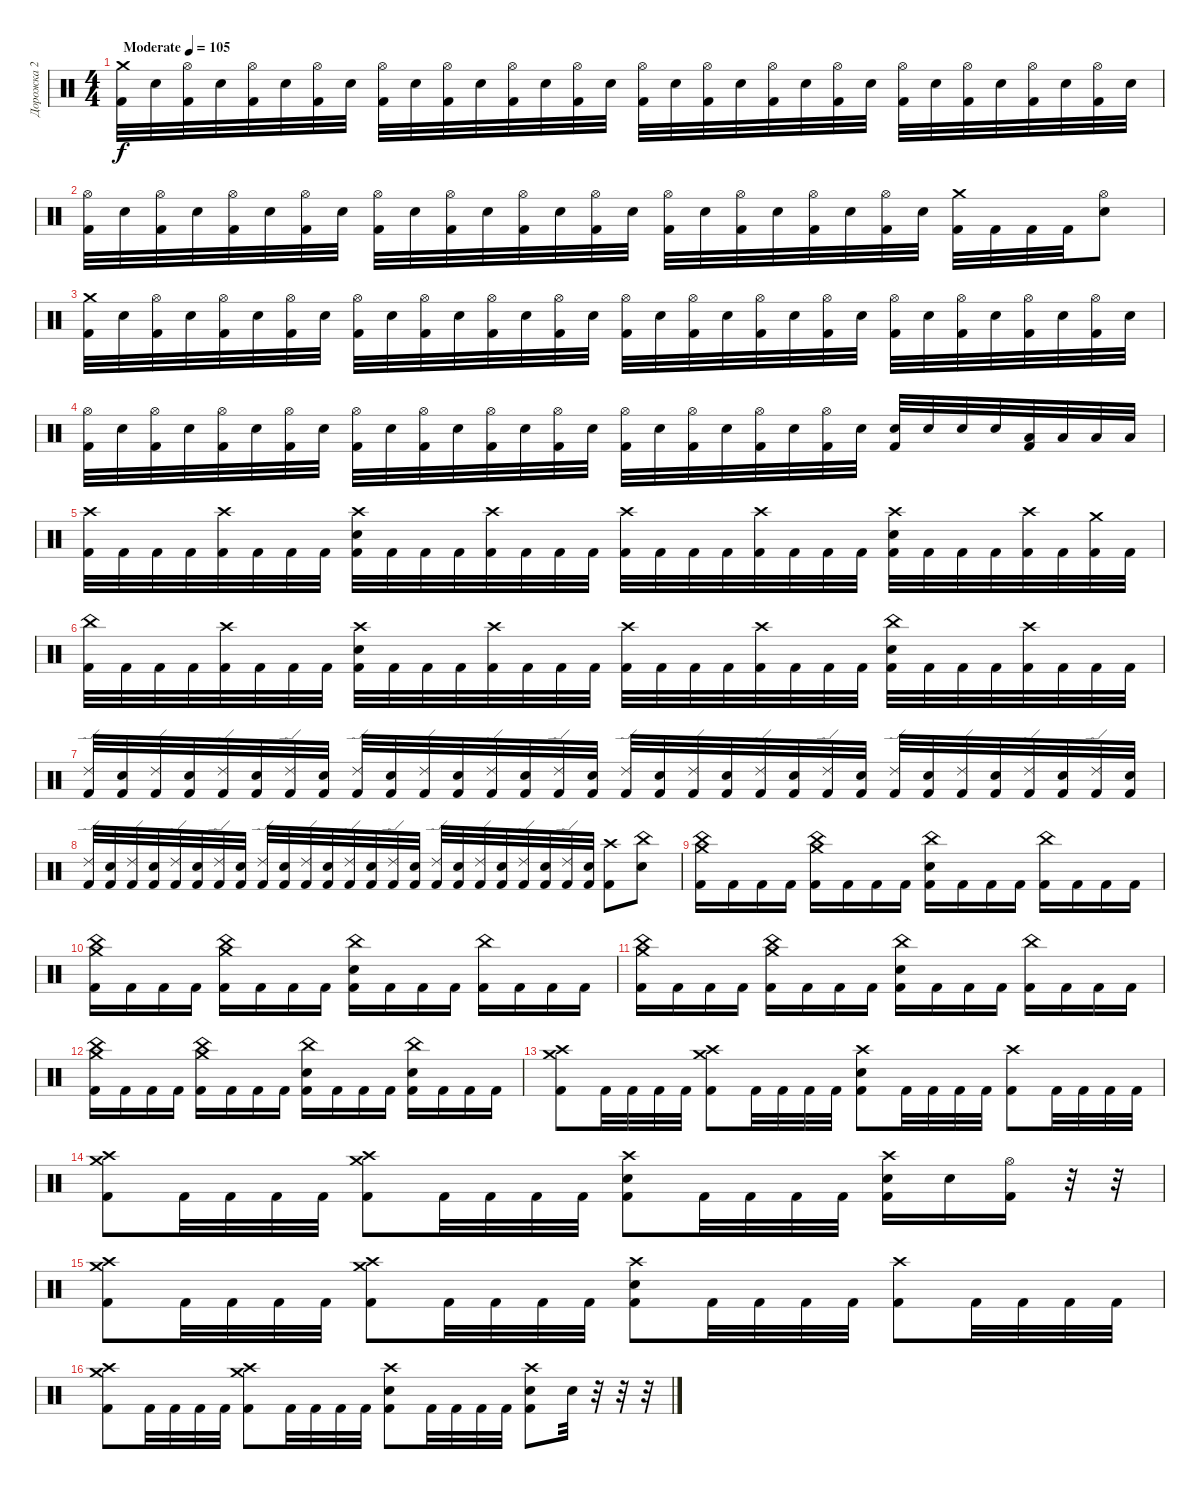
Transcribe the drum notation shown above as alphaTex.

\track ("Дорожка 2" "Дорожка 2") {instrument percussion}
\staff {score}
\articulation defaults
\ts (4 4)
\tempo (105 "Moderate")
\clef neutral
\ks c
("Crash medium (hit)" "Kick (hit) 2").32{dy f} "Electric Snare (hit)".32 ("Hi-Hat (open)" "Kick (hit) 2").32 "Electric Snare (hit)".32 ("Hi-Hat (open)" "Kick (hit) 2").32 "Electric Snare (hit)".32 ("Hi-Hat (open)" "Kick (hit) 2").32 "Electric Snare (hit)".32 ("Hi-Hat (open)" "Kick (hit) 2").32 "Electric Snare (hit)".32 ("Hi-Hat (open)" "Kick (hit) 2").32 "Electric Snare (hit)".32 ("Hi-Hat (open)" "Kick (hit) 2").32 "Electric Snare (hit)".32 ("Hi-Hat (open)" "Kick (hit) 2").32 "Electric Snare (hit)".32 ("Hi-Hat (open)" "Kick (hit) 2").32 "Electric Snare (hit)".32 ("Hi-Hat (open)" "Kick (hit) 2").32 "Electric Snare (hit)".32 ("Hi-Hat (open)" "Kick (hit) 2").32 "Electric Snare (hit)".32 ("Hi-Hat (open)" "Kick (hit) 2").32 "Electric Snare (hit)".32 ("Hi-Hat (open)" "Kick (hit) 2").32 "Electric Snare (hit)".32 ("Hi-Hat (open)" "Kick (hit) 2").32 "Electric Snare (hit)".32 ("Hi-Hat (open)" "Kick (hit) 2").32 "Electric Snare (hit)".32 ("Hi-Hat (open)" "Kick (hit) 2").32 "Electric Snare (hit)".32 |
("Hi-Hat (open)" "Kick (hit) 2").32 "Electric Snare (hit)".32 ("Hi-Hat (open)" "Kick (hit) 2").32 "Electric Snare (hit)".32 ("Hi-Hat (open)" "Kick (hit) 2").32 "Electric Snare (hit)".32 ("Hi-Hat (open)" "Kick (hit) 2").32 "Electric Snare (hit)".32 ("Hi-Hat (open)" "Kick (hit) 2").32 "Electric Snare (hit)".32 ("Hi-Hat (open)" "Kick (hit) 2").32 "Electric Snare (hit)".32 ("Hi-Hat (open)" "Kick (hit) 2").32 "Electric Snare (hit)".32 ("Hi-Hat (open)" "Kick (hit) 2").32 "Electric Snare (hit)".32 ("Hi-Hat (open)" "Kick (hit) 2").32 "Electric Snare (hit)".32 ("Hi-Hat (open)" "Kick (hit) 2").32 "Electric Snare (hit)".32 ("Hi-Hat (open)" "Kick (hit) 2").32 "Electric Snare (hit)".32 ("Hi-Hat (open)" "Kick (hit) 2").32 "Electric Snare (hit)".32 ("Crash medium (hit)" "Kick (hit) 2").32 "Kick (hit) 2".32 "Kick (hit) 2".32 "Kick (hit) 2".32 ("Hi-Hat (open)" "Electric Snare (hit)").8 |
("Crash medium (hit)" "Kick (hit) 2").32 "Electric Snare (hit)".32 ("Hi-Hat (open)" "Kick (hit) 2").32 "Electric Snare (hit)".32 ("Hi-Hat (open)" "Kick (hit) 2").32 "Electric Snare (hit)".32 ("Hi-Hat (open)" "Kick (hit) 2").32 "Electric Snare (hit)".32 ("Hi-Hat (open)" "Kick (hit) 2").32 "Electric Snare (hit)".32 ("Hi-Hat (open)" "Kick (hit) 2").32 "Electric Snare (hit)".32 ("Hi-Hat (open)" "Kick (hit) 2").32 "Electric Snare (hit)".32 ("Hi-Hat (open)" "Kick (hit) 2").32 "Electric Snare (hit)".32 ("Hi-Hat (open)" "Kick (hit) 2").32 "Electric Snare (hit)".32 ("Hi-Hat (open)" "Kick (hit) 2").32 "Electric Snare (hit)".32 ("Hi-Hat (open)" "Kick (hit) 2").32 "Electric Snare (hit)".32 ("Hi-Hat (open)" "Kick (hit) 2").32 "Electric Snare (hit)".32 ("Hi-Hat (open)" "Kick (hit) 2").32 "Electric Snare (hit)".32 ("Hi-Hat (open)" "Kick (hit) 2").32 "Electric Snare (hit)".32 ("Hi-Hat (open)" "Kick (hit) 2").32 "Electric Snare (hit)".32 ("Hi-Hat (open)" "Kick (hit) 2").32 "Electric Snare (hit)".32 |
("Hi-Hat (open)" "Kick (hit) 2").32 "Electric Snare (hit)".32 ("Hi-Hat (open)" "Kick (hit) 2").32 "Electric Snare (hit)".32 ("Hi-Hat (open)" "Kick (hit) 2").32 "Electric Snare (hit)".32 ("Hi-Hat (open)" "Kick (hit) 2").32 "Electric Snare (hit)".32 ("Hi-Hat (open)" "Kick (hit) 2").32 "Electric Snare (hit)".32 ("Hi-Hat (open)" "Kick (hit) 2").32 "Electric Snare (hit)".32 ("Hi-Hat (open)" "Kick (hit) 2").32 "Electric Snare (hit)".32 ("Hi-Hat (open)" "Kick (hit) 2").32 "Electric Snare (hit)".32 ("Hi-Hat (open)" "Kick (hit) 2").32 "Electric Snare (hit)".32 ("Hi-Hat (open)" "Kick (hit) 2").32 "Electric Snare (hit)".32 ("Hi-Hat (open)" "Kick (hit) 2").32 "Electric Snare (hit)".32 ("Hi-Hat (open)" "Kick (hit) 2").32 "Electric Snare (hit)".32 ("Electric Snare (hit)" "Kick (hit) 2").32 "Electric Snare (hit)".32 "Electric Snare (hit)".32 "Electric Snare (hit)".32 ("Low Tom (hit)" "Kick (hit) 2").32 "Low Tom (hit)".32 "Low Tom (hit)".32 "Low Tom (hit)".32 |
("Crash high (hit)" "Kick (hit) 2").32 "Kick (hit) 2".32 "Kick (hit) 2".32 "Kick (hit) 2".32 ("Crash high (hit)" "Kick (hit) 2").32 "Kick (hit) 2".32 "Kick (hit) 2".32 "Kick (hit) 2".32 ("Crash high (hit)" "Electric Snare (hit)" "Kick (hit) 2").32 "Kick (hit) 2".32 "Kick (hit) 2".32 "Kick (hit) 2".32 ("Crash high (hit)" "Kick (hit) 2").32 "Kick (hit) 2".32 "Kick (hit) 2".32 "Kick (hit) 2".32 ("Crash high (hit)" "Kick (hit) 2").32 "Kick (hit) 2".32 "Kick (hit) 2".32 "Kick (hit) 2".32 ("Crash high (hit)" "Kick (hit) 2").32 "Kick (hit) 2".32 "Kick (hit) 2".32 "Kick (hit) 2".32 ("Crash high (hit)" "Electric Snare (hit)" "Kick (hit) 2").32 "Kick (hit) 2".32 "Kick (hit) 2".32 "Kick (hit) 2".32 ("Crash high (hit)" "Kick (hit) 2").32 "Kick (hit) 2".32 ("Crash medium (hit)" "Kick (hit) 2").32 "Kick (hit) 2".32 |
("China (hit)" "Kick (hit) 2").32 "Kick (hit) 2".32 "Kick (hit) 2".32 "Kick (hit) 2".32 ("Crash high (hit)" "Kick (hit) 2").32 "Kick (hit) 2".32 "Kick (hit) 2".32 "Kick (hit) 2".32 ("Crash high (hit)" "Electric Snare (hit)" "Kick (hit) 2").32 "Kick (hit) 2".32 "Kick (hit) 2".32 "Kick (hit) 2".32 ("Crash high (hit)" "Kick (hit) 2").32 "Kick (hit) 2".32 "Kick (hit) 2".32 "Kick (hit) 2".32 ("Crash high (hit)" "Kick (hit) 2").32 "Kick (hit) 2".32 "Kick (hit) 2".32 "Kick (hit) 2".32 ("Crash high (hit)" "Kick (hit) 2").32 "Kick (hit) 2".32 "Kick (hit) 2".32 "Kick (hit) 2".32 ("China (hit)" "Electric Snare (hit)" "Kick (hit) 2").32 "Kick (hit) 2".32 "Kick (hit) 2".32 "Kick (hit) 2".32 ("Crash high (hit)" "Kick (hit) 2").32 "Kick (hit) 2".32 "Kick (hit) 2".32 "Kick (hit) 2".32 |
("Ride (edge) 2" "Kick (hit) 2").32 ("Electric Snare (hit)" "Kick (hit) 2").32 ("Ride (edge) 2" "Kick (hit) 2").32 ("Electric Snare (hit)" "Kick (hit) 2").32 ("Ride (edge) 2" "Kick (hit) 2").32 ("Electric Snare (hit)" "Kick (hit) 2").32 ("Ride (edge) 2" "Kick (hit) 2").32 ("Electric Snare (hit)" "Kick (hit) 2").32 ("Ride (edge) 2" "Kick (hit) 2").32 ("Electric Snare (hit)" "Kick (hit) 2").32 ("Ride (edge) 2" "Kick (hit) 2").32 ("Electric Snare (hit)" "Kick (hit) 2").32 ("Ride (edge) 2" "Kick (hit) 2").32 ("Electric Snare (hit)" "Kick (hit) 2").32 ("Ride (edge) 2" "Kick (hit) 2").32 ("Electric Snare (hit)" "Kick (hit) 2").32 ("Ride (edge) 2" "Kick (hit) 2").32 ("Electric Snare (hit)" "Kick (hit) 2").32 ("Ride (edge) 2" "Kick (hit) 2").32 ("Electric Snare (hit)" "Kick (hit) 2").32 ("Ride (edge) 2" "Kick (hit) 2").32 ("Electric Snare (hit)" "Kick (hit) 2").32 ("Ride (edge) 2" "Kick (hit) 2").32 ("Electric Snare (hit)" "Kick (hit) 2").32 ("Ride (edge) 2" "Kick (hit) 2").32 ("Electric Snare (hit)" "Kick (hit) 2").32 ("Ride (edge) 2" "Kick (hit) 2").32 ("Electric Snare (hit)" "Kick (hit) 2").32 ("Ride (edge) 2" "Kick (hit) 2").32 ("Electric Snare (hit)" "Kick (hit) 2").32 ("Ride (edge) 2" "Kick (hit) 2").32 ("Electric Snare (hit)" "Kick (hit) 2").32 |
("Ride (edge) 2" "Kick (hit) 2").32 ("Electric Snare (hit)" "Kick (hit) 2").32 ("Ride (edge) 2" "Kick (hit) 2").32 ("Electric Snare (hit)" "Kick (hit) 2").32 ("Ride (edge) 2" "Kick (hit) 2").32 ("Electric Snare (hit)" "Kick (hit) 2").32 ("Ride (edge) 2" "Kick (hit) 2").32 ("Electric Snare (hit)" "Kick (hit) 2").32 ("Ride (edge) 2" "Kick (hit) 2").32 ("Electric Snare (hit)" "Kick (hit) 2").32 ("Ride (edge) 2" "Kick (hit) 2").32 ("Electric Snare (hit)" "Kick (hit) 2").32 ("Ride (edge) 2" "Kick (hit) 2").32 ("Electric Snare (hit)" "Kick (hit) 2").32 ("Ride (edge) 2" "Kick (hit) 2").32 ("Electric Snare (hit)" "Kick (hit) 2").32 ("Ride (edge) 2" "Kick (hit) 2").32 ("Electric Snare (hit)" "Kick (hit) 2").32 ("Ride (edge) 2" "Kick (hit) 2").32 ("Electric Snare (hit)" "Kick (hit) 2").32 ("Ride (edge) 2" "Kick (hit) 2").32 ("Electric Snare (hit)" "Kick (hit) 2").32 ("Ride (edge) 2" "Kick (hit) 2").32 ("Electric Snare (hit)" "Kick (hit) 2").32 ("Crash high (hit)" "Kick (hit) 2").8 ("China (hit)" "Electric Snare (hit)").8 |
("Crash medium (hit)" "China (hit)" "Kick (hit) 2").16 "Kick (hit) 2".16 "Kick (hit) 2".16 "Kick (hit) 2".16 ("Crash medium (hit)" "China (hit)" "Kick (hit) 2").16 "Kick (hit) 2".16 "Kick (hit) 2".16 "Kick (hit) 2".16 ("China (hit)" "Electric Snare (hit)" "Kick (hit) 2").16 "Kick (hit) 2".16 "Kick (hit) 2".16 "Kick (hit) 2".16 ("China (hit)" "Kick (hit) 2").16 "Kick (hit) 2".16 "Kick (hit) 2".16 "Kick (hit) 2".16 |
("Crash medium (hit)" "China (hit)" "Kick (hit) 2").16 "Kick (hit) 2".16 "Kick (hit) 2".16 "Kick (hit) 2".16 ("Crash medium (hit)" "China (hit)" "Kick (hit) 2").16 "Kick (hit) 2".16 "Kick (hit) 2".16 "Kick (hit) 2".16 ("China (hit)" "Electric Snare (hit)" "Kick (hit) 2").16 "Kick (hit) 2".16 "Kick (hit) 2".16 "Kick (hit) 2".16 ("China (hit)" "Kick (hit) 2").16 "Kick (hit) 2".16 "Kick (hit) 2".16 "Kick (hit) 2".16 |
("Crash medium (hit)" "China (hit)" "Kick (hit) 2").16 "Kick (hit) 2".16 "Kick (hit) 2".16 "Kick (hit) 2".16 ("Crash medium (hit)" "China (hit)" "Kick (hit) 2").16 "Kick (hit) 2".16 "Kick (hit) 2".16 "Kick (hit) 2".16 ("China (hit)" "Electric Snare (hit)" "Kick (hit) 2").16 "Kick (hit) 2".16 "Kick (hit) 2".16 "Kick (hit) 2".16 ("China (hit)" "Kick (hit) 2").16 "Kick (hit) 2".16 "Kick (hit) 2".16 "Kick (hit) 2".16 |
("Crash medium (hit)" "China (hit)" "Kick (hit) 2").16 "Kick (hit) 2".16 "Kick (hit) 2".16 "Kick (hit) 2".16 ("Crash medium (hit)" "China (hit)" "Kick (hit) 2").16 "Kick (hit) 2".16 "Kick (hit) 2".16 "Kick (hit) 2".16 ("China (hit)" "Electric Snare (hit)" "Kick (hit) 2").16 "Kick (hit) 2".16 "Kick (hit) 2".16 "Kick (hit) 2".16 ("China (hit)" "Electric Snare (hit)" "Kick (hit) 2").16 "Kick (hit) 2".16 "Kick (hit) 2".16 "Kick (hit) 2".16 |
("Crash medium (hit)" "Crash high (hit)" "Kick (hit) 2").8 "Kick (hit) 2".32 "Kick (hit) 2".32 "Kick (hit) 2".32 "Kick (hit) 2".32 ("Crash medium (hit)" "Crash high (hit)" "Kick (hit) 2").8 "Kick (hit) 2".32 "Kick (hit) 2".32 "Kick (hit) 2".32 "Kick (hit) 2".32 ("Crash high (hit)" "Electric Snare (hit)" "Kick (hit) 2").8 "Kick (hit) 2".32 "Kick (hit) 2".32 "Kick (hit) 2".32 "Kick (hit) 2".32 ("Crash high (hit)" "Kick (hit) 2").8 "Kick (hit) 2".32 "Kick (hit) 2".32 "Kick (hit) 2".32 "Kick (hit) 2".32 |
("Crash medium (hit)" "Crash high (hit)" "Kick (hit) 2").8 "Kick (hit) 2".32 "Kick (hit) 2".32 "Kick (hit) 2".32 "Kick (hit) 2".32 ("Crash medium (hit)" "Crash high (hit)" "Kick (hit) 2").8 "Kick (hit) 2".32 "Kick (hit) 2".32 "Kick (hit) 2".32 "Kick (hit) 2".32 ("Crash high (hit)" "Electric Snare (hit)" "Kick (hit) 2").8 "Kick (hit) 2".32 "Kick (hit) 2".32 "Kick (hit) 2".32 "Kick (hit) 2".32 ("Crash high (hit)" "Electric Snare (hit)" "Kick (hit) 2").16 "Electric Snare (hit)".16 ("Hi-Hat (open)" "Kick (hit) 2").16 r.32 r.32 |
("Crash medium (hit)" "Crash high (hit)" "Kick (hit) 2").8 "Kick (hit) 2".32 "Kick (hit) 2".32 "Kick (hit) 2".32 "Kick (hit) 2".32 ("Crash medium (hit)" "Crash high (hit)" "Kick (hit) 2").8 "Kick (hit) 2".32 "Kick (hit) 2".32 "Kick (hit) 2".32 "Kick (hit) 2".32 ("Crash high (hit)" "Electric Snare (hit)" "Kick (hit) 2").8 "Kick (hit) 2".32 "Kick (hit) 2".32 "Kick (hit) 2".32 "Kick (hit) 2".32 ("Crash high (hit)" "Kick (hit) 2").8 "Kick (hit) 2".32 "Kick (hit) 2".32 "Kick (hit) 2".32 "Kick (hit) 2".32 |
("Crash medium (hit)" "Crash high (hit)" "Kick (hit) 2").8 "Kick (hit) 2".32 "Kick (hit) 2".32 "Kick (hit) 2".32 "Kick (hit) 2".32 ("Crash medium (hit)" "Crash high (hit)" "Kick (hit) 2").8 "Kick (hit) 2".32 "Kick (hit) 2".32 "Kick (hit) 2".32 "Kick (hit) 2".32 ("Crash high (hit)" "Electric Snare (hit)" "Kick (hit) 2").8 "Kick (hit) 2".32 "Kick (hit) 2".32 "Kick (hit) 2".32 "Kick (hit) 2".32 ("Crash high (hit)" "Electric Snare (hit)" "Kick (hit) 2").8 "Electric Snare (hit)".32 r.32 r.32 r.32
